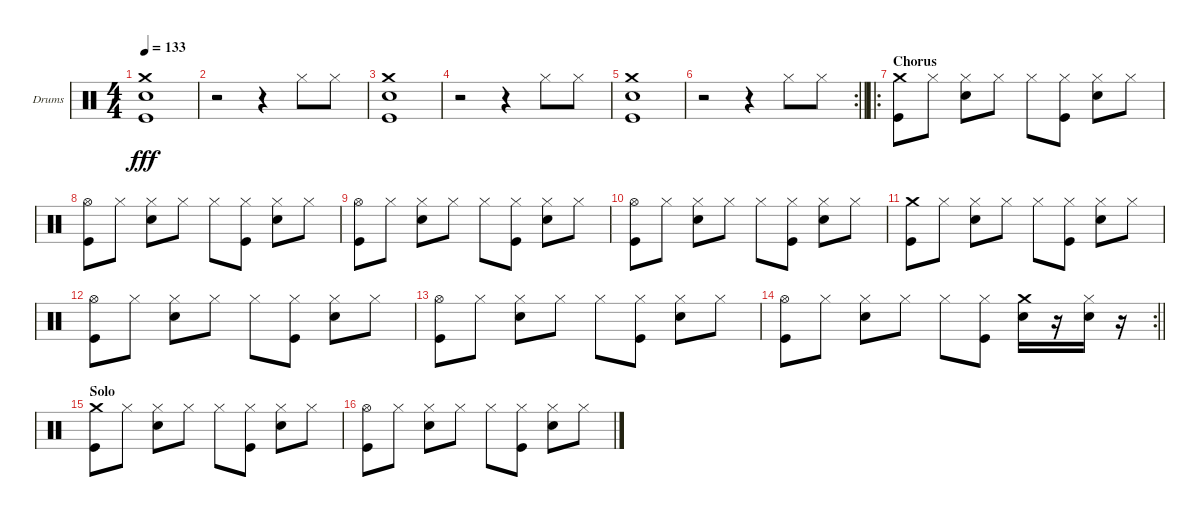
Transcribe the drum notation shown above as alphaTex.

\bracketExtendMode groupsimilarinstruments
\firstSystemTrackNameOrientation horizontal
\otherSystemsTrackNameOrientation horizontal
\track ("Drumkit" "Drums") {instrument percussion}
\staff {score}
\articulation defaults
\ts (4 4)
\tempo 133
\clef neutral
\ks c
("Crash medium (hit)" "Snare (hit) 2" "Kick (hit)").1{dy fff} |
r.2 r.4 "Hi-Hat (closed)".8 "Hi-Hat (closed)".8 |
("Crash medium (hit)" "Snare (hit) 2" "Kick (hit)").1 |
r.2 r.4 "Hi-Hat (closed)".8 "Hi-Hat (closed)".8 |
("Crash medium (hit)" "Snare (hit) 2" "Kick (hit)").1 |
\rc 2
\barLineRight lightlight
r.2 r.4 "Hi-Hat (closed)".8 "Hi-Hat (closed)".8 |
\ro
\section ("" "Chorus")
("Crash medium (hit)" "Kick (hit)").8 "Hi-Hat (closed)".8 ("Hi-Hat (closed)" "Snare (hit) 2").8 "Hi-Hat (closed)".8 "Hi-Hat (closed)".8 ("Hi-Hat (closed)" "Kick (hit)").8 ("Hi-Hat (closed)" "Snare (hit) 2").8 "Hi-Hat (closed)".8 |
("Hi-Hat (open)" "Kick (hit)").8 "Hi-Hat (closed)".8 ("Hi-Hat (closed)" "Snare (hit) 2").8 "Hi-Hat (closed)".8 "Hi-Hat (closed)".8 ("Hi-Hat (closed)" "Kick (hit)").8 ("Hi-Hat (closed)" "Snare (hit) 2").8 "Hi-Hat (closed)".8 |
("Hi-Hat (open)" "Kick (hit)").8 "Hi-Hat (closed)".8 ("Hi-Hat (closed)" "Snare (hit) 2").8 "Hi-Hat (closed)".8 "Hi-Hat (closed)".8 ("Hi-Hat (closed)" "Kick (hit)").8 ("Hi-Hat (closed)" "Snare (hit) 2").8 "Hi-Hat (closed)".8 |
("Hi-Hat (open)" "Kick (hit)").8 "Hi-Hat (closed)".8 ("Hi-Hat (closed)" "Snare (hit) 2").8 "Hi-Hat (closed)".8 "Hi-Hat (closed)".8 ("Hi-Hat (closed)" "Kick (hit)").8 ("Hi-Hat (closed)" "Snare (hit) 2").8 "Hi-Hat (closed)".8 |
("Crash medium (hit)" "Kick (hit)").8 "Hi-Hat (closed)".8 ("Hi-Hat (closed)" "Snare (hit) 2").8 "Hi-Hat (closed)".8 "Hi-Hat (closed)".8 ("Hi-Hat (closed)" "Kick (hit)").8 ("Hi-Hat (closed)" "Snare (hit) 2").8 "Hi-Hat (closed)".8 |
("Hi-Hat (open)" "Kick (hit)").8 "Hi-Hat (closed)".8 ("Hi-Hat (closed)" "Snare (hit) 2").8 "Hi-Hat (closed)".8 "Hi-Hat (closed)".8 ("Hi-Hat (closed)" "Kick (hit)").8 ("Hi-Hat (closed)" "Snare (hit) 2").8 "Hi-Hat (closed)".8 |
("Hi-Hat (open)" "Kick (hit)").8 "Hi-Hat (closed)".8 ("Hi-Hat (closed)" "Snare (hit) 2").8 "Hi-Hat (closed)".8 "Hi-Hat (closed)".8 ("Hi-Hat (closed)" "Kick (hit)").8 ("Hi-Hat (closed)" "Snare (hit) 2").8 "Hi-Hat (closed)".8 |
\rc 2
\barLineRight lightlight
("Hi-Hat (open)" "Kick (hit)").8 "Hi-Hat (closed)".8 ("Hi-Hat (closed)" "Snare (hit) 2").8 "Hi-Hat (closed)".8 "Hi-Hat (closed)".8 ("Hi-Hat (closed)" "Kick (hit)").8 ("Crash medium (hit)" "Snare (hit) 2").16 r.16 ("Hi-Hat (closed)" "Snare (hit) 2").16 r.16 |
\section ("" "Solo")
("Crash medium (hit)" "Kick (hit)").8 "Hi-Hat (closed)".8 ("Hi-Hat (closed)" "Snare (hit) 2").8 "Hi-Hat (closed)".8 "Hi-Hat (closed)".8 ("Hi-Hat (closed)" "Kick (hit)").8 ("Hi-Hat (closed)" "Snare (hit) 2").8 "Hi-Hat (closed)".8 |
("Hi-Hat (open)" "Kick (hit)").8 "Hi-Hat (closed)".8 ("Hi-Hat (closed)" "Snare (hit) 2").8 "Hi-Hat (closed)".8 "Hi-Hat (closed)".8 ("Hi-Hat (closed)" "Kick (hit)").8 ("Hi-Hat (closed)" "Snare (hit) 2").8 "Hi-Hat (closed)".8
